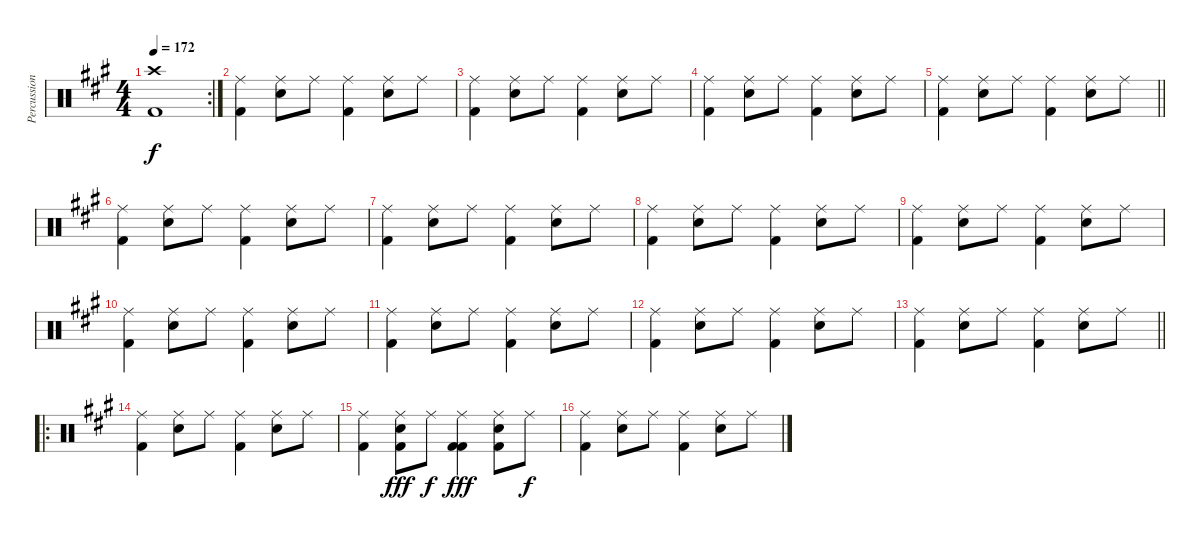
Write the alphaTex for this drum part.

\track ("Percussion" "Percussion") {instrument percussion}
\staff {score}
\articulation defaults
\rc 2
\ts (4 4)
\tempo 172
\clef neutral
\ks a
("Crash high (hit)" "Kick (hit) 2").1{dy f} |
("Ride (middle)" "Kick (hit) 2").4 ("Ride (middle)" "Snare (hit) 2").8 "Ride (middle)".8 ("Ride (middle)" "Kick (hit) 2").4 ("Ride (middle)" "Snare (hit) 2").8 "Ride (middle)".8 |
("Ride (middle)" "Kick (hit) 2").4 ("Ride (middle)" "Snare (hit) 2").8 "Ride (middle)".8 ("Ride (middle)" "Kick (hit) 2").4 ("Ride (middle)" "Snare (hit) 2").8 "Ride (middle)".8 |
("Ride (middle)" "Kick (hit) 2").4 ("Ride (middle)" "Snare (hit) 2").8 "Ride (middle)".8 ("Ride (middle)" "Kick (hit) 2").4 ("Ride (middle)" "Snare (hit) 2").8 "Ride (middle)".8 |
\barLineRight lightlight
("Ride (middle)" "Kick (hit) 2").4 ("Ride (middle)" "Snare (hit) 2").8 "Ride (middle)".8 ("Ride (middle)" "Kick (hit) 2").4 ("Ride (middle)" "Snare (hit) 2").8 "Ride (middle)".8 |
("Ride (middle)" "Kick (hit) 2").4 ("Ride (middle)" "Snare (hit) 2").8 "Ride (middle)".8 ("Ride (middle)" "Kick (hit) 2").4 ("Ride (middle)" "Snare (hit) 2").8 "Ride (middle)".8 |
("Ride (middle)" "Kick (hit) 2").4 ("Ride (middle)" "Snare (hit) 2").8 "Ride (middle)".8 ("Ride (middle)" "Kick (hit) 2").4 ("Ride (middle)" "Snare (hit) 2").8 "Ride (middle)".8 |
("Ride (middle)" "Kick (hit) 2").4 ("Ride (middle)" "Snare (hit) 2").8 "Ride (middle)".8 ("Ride (middle)" "Kick (hit) 2").4 ("Ride (middle)" "Snare (hit) 2").8 "Ride (middle)".8 |
("Ride (middle)" "Kick (hit) 2").4 ("Ride (middle)" "Snare (hit) 2").8 "Ride (middle)".8 ("Ride (middle)" "Kick (hit) 2").4 ("Ride (middle)" "Snare (hit) 2").8 "Ride (middle)".8 |
("Ride (middle)" "Kick (hit) 2").4 ("Ride (middle)" "Snare (hit) 2").8 "Ride (middle)".8 ("Ride (middle)" "Kick (hit) 2").4 ("Ride (middle)" "Snare (hit) 2").8 "Ride (middle)".8 |
("Ride (middle)" "Kick (hit) 2").4 ("Ride (middle)" "Snare (hit) 2").8 "Ride (middle)".8 ("Ride (middle)" "Kick (hit) 2").4 ("Ride (middle)" "Snare (hit) 2").8 "Ride (middle)".8 |
("Ride (middle)" "Kick (hit) 2").4 ("Ride (middle)" "Snare (hit) 2").8 "Ride (middle)".8 ("Ride (middle)" "Kick (hit) 2").4 ("Ride (middle)" "Snare (hit) 2").8 "Ride (middle)".8 |
\barLineRight lightlight
("Ride (middle)" "Kick (hit) 2").4 ("Ride (middle)" "Snare (hit) 2").8 "Ride (middle)".8 ("Ride (middle)" "Kick (hit) 2").4 ("Ride (middle)" "Snare (hit) 2").8 "Ride (middle)".8 |
\ro
("Ride (middle)" "Kick (hit) 2").4 ("Ride (middle)" "Snare (hit) 2").8 "Ride (middle)".8 ("Ride (middle)" "Kick (hit) 2").4 ("Ride (middle)" "Snare (hit) 2").8 "Ride (middle)".8 |
("Ride (middle)" "Kick (hit) 2").4 ("Ride (middle)" "Snare (hit) 2" "Kick (hit) 2").8{dy fff} "Ride (middle)".8{dy f} ("Ride (middle)" "Kick (hit) 2" "Kick (hit) 2").4{dy fff} ("Ride (middle)" "Snare (hit) 2" "Kick (hit) 2").8 "Ride (middle)".8{dy f} |
("Ride (middle)" "Kick (hit) 2").4 ("Ride (middle)" "Snare (hit) 2").8 "Ride (middle)".8 ("Ride (middle)" "Kick (hit) 2").4 ("Ride (middle)" "Snare (hit) 2").8 "Ride (middle)".8
